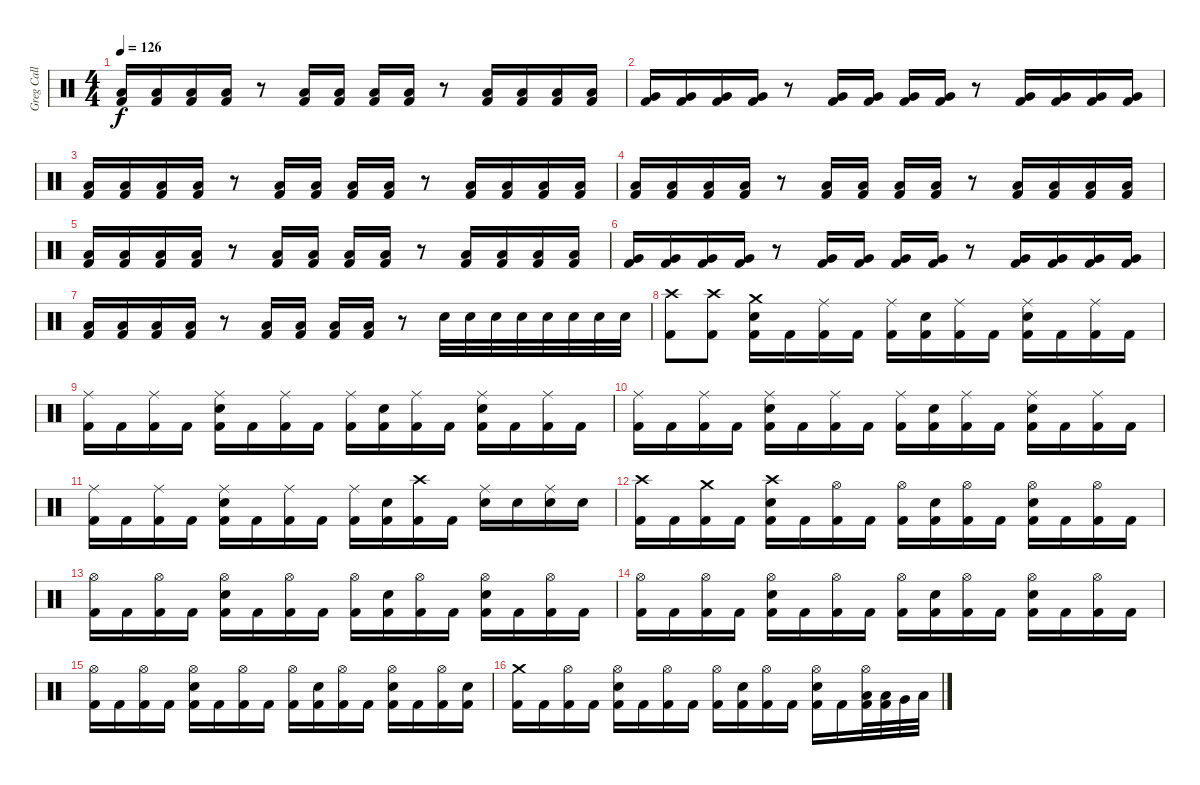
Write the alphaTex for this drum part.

\track ("Greg Call (Drums)" "Greg Call ") {instrument percussion}
\staff {score}
\articulation defaults
\ts (4 4)
\tempo 126
\clef neutral
\ks c
("Low Floor Tom (hit)" "Kick (hit) 2").16{dy f} ("Low Floor Tom (hit)" "Kick (hit) 2").16 ("Low Floor Tom (hit)" "Kick (hit) 2").16 ("Low Floor Tom (hit)" "Kick (hit) 2").16 r.8 ("Low Floor Tom (hit)" "Kick (hit) 2").16 ("Low Floor Tom (hit)" "Kick (hit) 2").16 ("Low Floor Tom (hit)" "Kick (hit) 2").16 ("Low Floor Tom (hit)" "Kick (hit) 2").16 r.8 ("Low Floor Tom (hit)" "Kick (hit) 2").16 ("Low Floor Tom (hit)" "Kick (hit) 2").16 ("Low Floor Tom (hit)" "Kick (hit) 2").16 ("Low Floor Tom (hit)" "Kick (hit) 2").16 |
("Very Low Tom (hit)" "Kick (hit) 2").16 ("Very Low Tom (hit)" "Kick (hit) 2").16 ("Very Low Tom (hit)" "Kick (hit) 2").16 ("Very Low Tom (hit)" "Kick (hit) 2").16 r.8 ("Very Low Tom (hit)" "Kick (hit) 2").16 ("Very Low Tom (hit)" "Kick (hit) 2").16 ("Very Low Tom (hit)" "Kick (hit) 2").16 ("Very Low Tom (hit)" "Kick (hit) 2").16 r.8 ("Very Low Tom (hit)" "Kick (hit) 2").16 ("Very Low Tom (hit)" "Kick (hit) 2").16 ("Very Low Tom (hit)" "Kick (hit) 2").16 ("Very Low Tom (hit)" "Kick (hit) 2").16 |
("Low Tom (hit)" "Kick (hit) 2").16 ("Low Tom (hit)" "Kick (hit) 2").16 ("Low Tom (hit)" "Kick (hit) 2").16 ("Low Tom (hit)" "Kick (hit) 2").16 r.8 ("Low Tom (hit)" "Kick (hit) 2").16 ("Low Tom (hit)" "Kick (hit) 2").16 ("Low Tom (hit)" "Kick (hit) 2").16 ("Low Tom (hit)" "Kick (hit) 2").16 r.8 ("Low Tom (hit)" "Kick (hit) 2").16 ("Low Tom (hit)" "Kick (hit) 2").16 ("Low Tom (hit)" "Kick (hit) 2").16 ("Low Tom (hit)" "Kick (hit) 2").16 |
("Low Floor Tom (hit)" "Kick (hit) 2").16{volume 14} ("Low Floor Tom (hit)" "Kick (hit) 2").16 ("Low Floor Tom (hit)" "Kick (hit) 2").16 ("Low Floor Tom (hit)" "Kick (hit) 2").16 r.8 ("Low Floor Tom (hit)" "Kick (hit) 2").16 ("Low Floor Tom (hit)" "Kick (hit) 2").16 ("Low Floor Tom (hit)" "Kick (hit) 2").16 ("Low Floor Tom (hit)" "Kick (hit) 2").16 r.8 ("Low Floor Tom (hit)" "Kick (hit) 2").16 ("Low Floor Tom (hit)" "Kick (hit) 2").16 ("Low Floor Tom (hit)" "Kick (hit) 2").16 ("Low Floor Tom (hit)" "Kick (hit) 2").16 |
("Low Floor Tom (hit)" "Kick (hit) 2").16 ("Low Floor Tom (hit)" "Kick (hit) 2").16 ("Low Floor Tom (hit)" "Kick (hit) 2").16 ("Low Floor Tom (hit)" "Kick (hit) 2").16 r.8 ("Low Floor Tom (hit)" "Kick (hit) 2").16 ("Low Floor Tom (hit)" "Kick (hit) 2").16 ("Low Floor Tom (hit)" "Kick (hit) 2").16 ("Low Floor Tom (hit)" "Kick (hit) 2").16 r.8 ("Low Floor Tom (hit)" "Kick (hit) 2").16 ("Low Floor Tom (hit)" "Kick (hit) 2").16 ("Low Floor Tom (hit)" "Kick (hit) 2").16 ("Low Floor Tom (hit)" "Kick (hit) 2").16 |
("Very Low Tom (hit)" "Kick (hit) 2").16 ("Very Low Tom (hit)" "Kick (hit) 2").16 ("Very Low Tom (hit)" "Kick (hit) 2").16 ("Very Low Tom (hit)" "Kick (hit) 2").16 r.8 ("Very Low Tom (hit)" "Kick (hit) 2").16 ("Very Low Tom (hit)" "Kick (hit) 2").16 ("Very Low Tom (hit)" "Kick (hit) 2").16 ("Very Low Tom (hit)" "Kick (hit) 2").16 r.8 ("Very Low Tom (hit)" "Kick (hit) 2").16 ("Very Low Tom (hit)" "Kick (hit) 2").16 ("Very Low Tom (hit)" "Kick (hit) 2").16 ("Very Low Tom (hit)" "Kick (hit) 2").16 |
("Low Tom (hit)" "Kick (hit) 2").16 ("Low Tom (hit)" "Kick (hit) 2").16 ("Low Tom (hit)" "Kick (hit) 2").16 ("Low Tom (hit)" "Kick (hit) 2").16 r.8 ("Low Tom (hit)" "Kick (hit) 2").16 ("Low Tom (hit)" "Kick (hit) 2").16 ("Low Tom (hit)" "Kick (hit) 2").16 ("Low Tom (hit)" "Kick (hit) 2").16 r.8 "Snare (hit) 2".32 "Snare (hit) 2".32 "Snare (hit) 2".32 "Snare (hit) 2".32 "Snare (hit) 2".32 "Snare (hit) 2".32 "Snare (hit) 2".32 "Snare (hit) 2".32 |
("Crash high (hit)" "Kick (hit) 2").8 ("Crash high (hit)" "Kick (hit) 2").8 ("Crash medium (hit)" "Snare (hit) 2" "Kick (hit) 2").16 "Kick (hit) 2".16 ("Ride (middle)" "Kick (hit) 2").16 "Kick (hit) 2".16 ("Ride (middle)" "Kick (hit) 2").16 ("Snare (hit) 2" "Kick (hit) 2").16 ("Ride (middle)" "Kick (hit) 2").16 "Kick (hit) 2".16 ("Snare (hit) 2" "Ride (middle)" "Kick (hit) 2").16 "Kick (hit) 2".16 ("Ride (middle)" "Kick (hit) 2").16 "Kick (hit) 2".16 |
("Ride (middle)" "Kick (hit) 2").16 "Kick (hit) 2".16 ("Ride (middle)" "Kick (hit) 2").16 "Kick (hit) 2".16 ("Ride (middle)" "Snare (hit) 2" "Kick (hit) 2").16 "Kick (hit) 2".16 ("Ride (middle)" "Kick (hit) 2").16 "Kick (hit) 2".16 ("Ride (middle)" "Kick (hit) 2").16 ("Snare (hit) 2" "Kick (hit) 2").16 ("Ride (middle)" "Kick (hit) 2").16 "Kick (hit) 2".16 ("Ride (middle)" "Snare (hit) 2" "Kick (hit) 2").16 "Kick (hit) 2".16 ("Ride (middle)" "Kick (hit) 2").16 "Kick (hit) 2".16 |
("Ride (middle)" "Kick (hit) 2").16 "Kick (hit) 2".16 ("Ride (middle)" "Kick (hit) 2").16 "Kick (hit) 2".16 ("Ride (middle)" "Snare (hit) 2" "Kick (hit) 2").16 "Kick (hit) 2".16 ("Ride (middle)" "Kick (hit) 2").16 "Kick (hit) 2".16 ("Ride (middle)" "Kick (hit) 2").16 ("Snare (hit) 2" "Kick (hit) 2").16 ("Ride (middle)" "Kick (hit) 2").16 "Kick (hit) 2".16 ("Ride (middle)" "Snare (hit) 2" "Kick (hit) 2").16 "Kick (hit) 2".16 ("Ride (middle)" "Kick (hit) 2").16 "Kick (hit) 2".16 |
("Ride (middle)" "Kick (hit) 2").16 "Kick (hit) 2".16 ("Ride (middle)" "Kick (hit) 2").16 "Kick (hit) 2".16 ("Ride (middle)" "Snare (hit) 2" "Kick (hit) 2").16 "Kick (hit) 2".16 ("Ride (middle)" "Kick (hit) 2").16 "Kick (hit) 2".16 ("Ride (middle)" "Kick (hit) 2").16 ("Snare (hit) 2" "Kick (hit) 2").16 ("Crash high (hit)" "Kick (hit) 2").16 "Kick (hit) 2".16 ("Ride (middle)" "Snare (hit) 2").16 "Snare (hit) 2".16 ("Ride (middle)" "Snare (hit) 2").16 "Snare (hit) 2".16 |
("Crash high (hit)" "Kick (hit) 2").16 "Kick (hit) 2".16 ("Crash medium (hit)" "Kick (hit) 2").16 "Kick (hit) 2".16 ("Crash high (hit)" "Snare (hit) 2" "Kick (hit) 2").16 "Kick (hit) 2".16 ("Hi-Hat (open)" "Kick (hit) 2").16 "Kick (hit) 2".16 ("Hi-Hat (open)" "Kick (hit) 2").16 ("Snare (hit) 2" "Kick (hit) 2").16 ("Hi-Hat (open)" "Kick (hit) 2").16 "Kick (hit) 2".16 ("Hi-Hat (open)" "Snare (hit) 2" "Kick (hit) 2").16 "Kick (hit) 2".16 ("Hi-Hat (open)" "Kick (hit) 2").16 "Kick (hit) 2".16 |
("Hi-Hat (open)" "Kick (hit) 2").16 "Kick (hit) 2".16 ("Hi-Hat (open)" "Kick (hit) 2").16 "Kick (hit) 2".16 ("Hi-Hat (open)" "Snare (hit) 2" "Kick (hit) 2").16 "Kick (hit) 2".16 ("Hi-Hat (open)" "Kick (hit) 2").16 "Kick (hit) 2".16 ("Hi-Hat (open)" "Kick (hit) 2").16 ("Snare (hit) 2" "Kick (hit) 2").16 ("Hi-Hat (open)" "Kick (hit) 2").16 "Kick (hit) 2".16 ("Hi-Hat (open)" "Snare (hit) 2" "Kick (hit) 2").16 "Kick (hit) 2".16 ("Hi-Hat (open)" "Kick (hit) 2").16 "Kick (hit) 2".16 |
("Hi-Hat (open)" "Kick (hit) 2").16 "Kick (hit) 2".16 ("Hi-Hat (open)" "Kick (hit) 2").16 "Kick (hit) 2".16 ("Hi-Hat (open)" "Snare (hit) 2" "Kick (hit) 2").16 "Kick (hit) 2".16 ("Hi-Hat (open)" "Kick (hit) 2").16 "Kick (hit) 2".16 ("Hi-Hat (open)" "Kick (hit) 2").16 ("Snare (hit) 2" "Kick (hit) 2").16 ("Hi-Hat (open)" "Kick (hit) 2").16 "Kick (hit) 2".16 ("Hi-Hat (open)" "Snare (hit) 2" "Kick (hit) 2").16 "Kick (hit) 2".16 ("Hi-Hat (open)" "Kick (hit) 2").16 "Kick (hit) 2".16 |
("Hi-Hat (open)" "Kick (hit) 2").16 "Kick (hit) 2".16 ("Hi-Hat (open)" "Kick (hit) 2").16 "Kick (hit) 2".16 ("Hi-Hat (open)" "Snare (hit) 2" "Kick (hit) 2").16 "Kick (hit) 2".16 ("Hi-Hat (open)" "Kick (hit) 2").16 "Kick (hit) 2".16 ("Hi-Hat (open)" "Kick (hit) 2").16 ("Snare (hit) 2" "Kick (hit) 2").16 ("Hi-Hat (open)" "Kick (hit) 2").16 "Kick (hit) 2".16 ("Hi-Hat (open)" "Snare (hit) 2" "Kick (hit) 2").16 "Kick (hit) 2".16 ("Hi-Hat (open)" "Kick (hit) 2").16 ("Snare (hit) 2" "Kick (hit) 2").16 |
("Crash medium (hit)" "Kick (hit) 2").16 "Kick (hit) 2".16 ("Hi-Hat (open)" "Kick (hit) 2").16 "Kick (hit) 2".16 ("Hi-Hat (open)" "Snare (hit) 2" "Kick (hit) 2").16 "Kick (hit) 2".16 ("Hi-Hat (open)" "Kick (hit) 2").16 "Kick (hit) 2".16 ("Hi-Hat (open)" "Kick (hit) 2").16 ("Snare (hit) 2" "Kick (hit) 2").16 ("Hi-Hat (open)" "Kick (hit) 2").16 "Kick (hit) 2".16 ("Hi-Hat (open)" "Snare (hit) 2" "Kick (hit) 2").16 "Kick (hit) 2".16 ("Hi-Hat (open)" "Low Tom (hit)" "Kick (hit) 2").32 ("Low Tom (hit)" "Kick (hit) 2").32 "Very Low Tom (hit)".32 "Low Floor Tom (hit)".32
